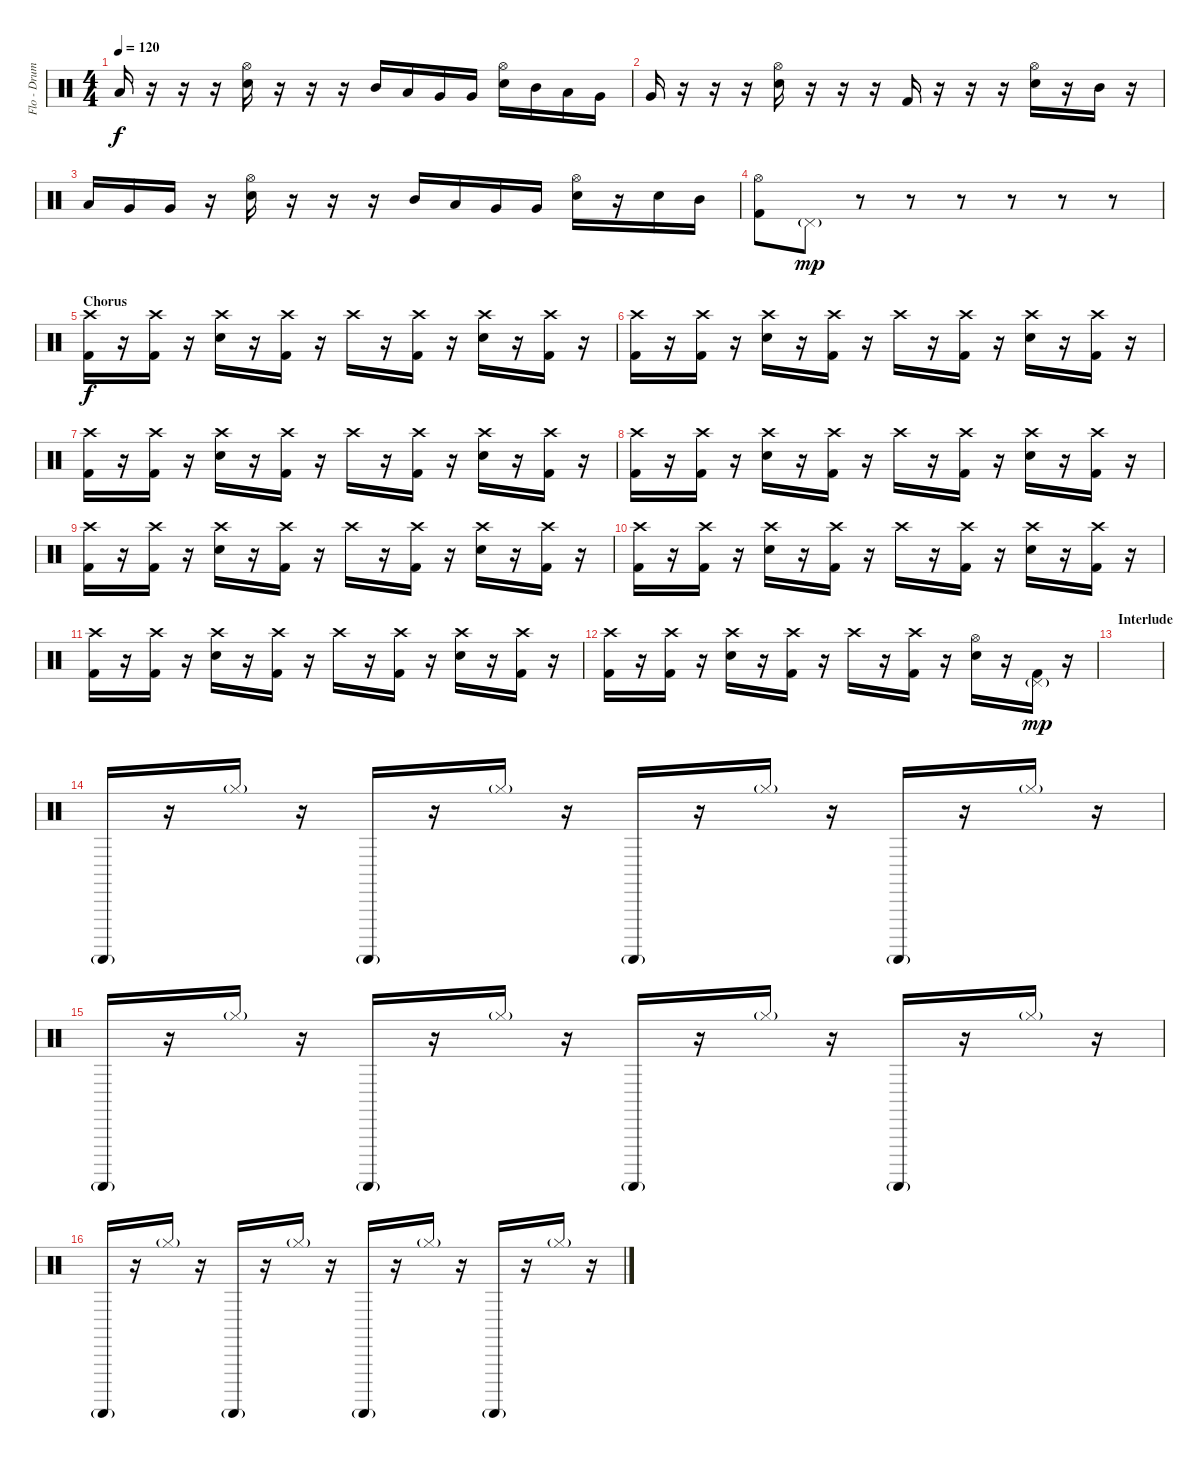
\track ("Flo - Drums" "Flo - Drum") {instrument percussion}
\staff {score}
\articulation defaults
\ts (4 4)
\tempo 120
\clef neutral
\ks c "Low Tom (hit)".16{dy f}
r.16 r.16 r.16 ("Hi-Hat (open)" "Electric Snare (hit)").16 r.16 r.16 r.16 "Mid Tom (hit)".16 "Low Tom (hit)".16 "Very Low Tom (hit)".16 "Very Low Tom (hit)".16 ("Hi-Hat (open)" "Electric Snare (hit)").16 "Mid Tom (hit)".16 "Low Tom (hit)".16 "Very Low Tom (hit)".16 |
"Very Low Tom (hit)".16 r.16 r.16 r.16 ("Hi-Hat (open)" "Electric Snare (hit)").16 r.16 r.16 r.16 "Kick (hit) 2".16 r.16 r.16 r.16 ("Hi-Hat (open)" "Electric Snare (hit)").16 r.16 "Mid Tom (hit)".16 r.16 |
"Low Tom (hit)".16 "Very Low Tom (hit)".16 "Very Low Tom (hit)".16 r.16 ("Hi-Hat (open)" "Electric Snare (hit)").16 r.16 r.16 r.16 "Mid Tom (hit)".16 "Low Tom (hit)".16 "Very Low Tom (hit)".16 "Very Low Tom (hit)".16 ("Hi-Hat (open)" "Electric Snare (hit)").16 r.16 "Electric Snare (hit)".16 "Mid Tom (hit)".16 |
("Hi-Hat (open)" "Kick (hit) 2").8 "Pedal Hi-Hat (hit)"{g}.8{dy mp} r.8 r.8 r.8 r.8 r.8 r.8 |
\section ("" "Chorus")
("Crash high (hit)" "Kick (hit) 2").16{dy f} r.16 ("Crash high (hit)" "Kick (hit) 2").16 r.16 ("Crash high (hit)" "Electric Snare (hit)").16 r.16 ("Crash high (hit)" "Kick (hit) 2").16 r.16 "Crash high (hit)".16 r.16 ("Crash high (hit)" "Kick (hit) 2").16 r.16 ("Crash high (hit)" "Electric Snare (hit)").16 r.16 ("Crash high (hit)" "Kick (hit) 2").16 r.16 |
("Crash high (hit)" "Kick (hit) 2").16 r.16 ("Crash high (hit)" "Kick (hit) 2").16 r.16 ("Crash high (hit)" "Electric Snare (hit)").16 r.16 ("Crash high (hit)" "Kick (hit) 2").16 r.16 "Crash high (hit)".16 r.16 ("Crash high (hit)" "Kick (hit) 2").16 r.16 ("Crash high (hit)" "Electric Snare (hit)").16 r.16 ("Crash high (hit)" "Kick (hit) 2").16 r.16 |
("Crash high (hit)" "Kick (hit) 2").16 r.16 ("Crash high (hit)" "Kick (hit) 2").16 r.16 ("Crash high (hit)" "Electric Snare (hit)").16 r.16 ("Crash high (hit)" "Kick (hit) 2").16 r.16 "Crash high (hit)".16 r.16 ("Crash high (hit)" "Kick (hit) 2").16 r.16 ("Crash high (hit)" "Electric Snare (hit)").16 r.16 ("Crash high (hit)" "Kick (hit) 2").16 r.16 |
("Crash high (hit)" "Kick (hit) 2").16 r.16 ("Crash high (hit)" "Kick (hit) 2").16 r.16 ("Crash high (hit)" "Electric Snare (hit)").16 r.16 ("Crash high (hit)" "Kick (hit) 2").16 r.16 "Crash high (hit)".16 r.16 ("Crash high (hit)" "Kick (hit) 2").16 r.16 ("Crash high (hit)" "Electric Snare (hit)").16 r.16 ("Crash high (hit)" "Kick (hit) 2").16 r.16 |
("Crash high (hit)" "Kick (hit) 2").16 r.16 ("Crash high (hit)" "Kick (hit) 2").16 r.16 ("Crash high (hit)" "Electric Snare (hit)").16 r.16 ("Crash high (hit)" "Kick (hit) 2").16 r.16 "Crash high (hit)".16 r.16 ("Crash high (hit)" "Kick (hit) 2").16 r.16 ("Crash high (hit)" "Electric Snare (hit)").16 r.16 ("Crash high (hit)" "Kick (hit) 2").16 r.16 |
("Crash high (hit)" "Kick (hit) 2").16 r.16 ("Crash high (hit)" "Kick (hit) 2").16 r.16 ("Crash high (hit)" "Electric Snare (hit)").16 r.16 ("Crash high (hit)" "Kick (hit) 2").16 r.16 "Crash high (hit)".16 r.16 ("Crash high (hit)" "Kick (hit) 2").16 r.16 ("Crash high (hit)" "Electric Snare (hit)").16 r.16 ("Crash high (hit)" "Kick (hit) 2").16 r.16 |
("Crash high (hit)" "Kick (hit) 2").16 r.16 ("Crash high (hit)" "Kick (hit) 2").16 r.16 ("Crash high (hit)" "Electric Snare (hit)").16 r.16 ("Crash high (hit)" "Kick (hit) 2").16 r.16 "Crash high (hit)".16 r.16 ("Crash high (hit)" "Kick (hit) 2").16 r.16 ("Crash high (hit)" "Electric Snare (hit)").16 r.16 ("Crash high (hit)" "Kick (hit) 2").16 r.16 |
("Crash high (hit)" "Kick (hit) 2").16 r.16 ("Crash high (hit)" "Kick (hit) 2").16 r.16 ("Crash high (hit)" "Electric Snare (hit)").16 r.16 ("Crash high (hit)" "Kick (hit) 2").16 r.16 "Crash high (hit)".16 r.16 ("Crash high (hit)" "Kick (hit) 2").16 r.16 ("Hi-Hat (open)" "Electric Snare (hit)").16 r.16 ("Pedal Hi-Hat (hit)"{g} "Kick (hit) 2").16{dy mp} r.16 |
\section ("" "Interlude")
|
"Guiro (scrap-return)"{g}.16 r.16 "Hi-Hat (closed)"{g}.16 r.16 "Guiro (scrap-return)"{g}.16 r.16 "Hi-Hat (closed)"{g}.16 r.16 "Guiro (scrap-return)"{g}.16 r.16 "Hi-Hat (closed)"{g}.16 r.16 "Guiro (scrap-return)"{g}.16 r.16 "Hi-Hat (closed)"{g}.16 r.16 |
"Guiro (scrap-return)"{g}.16 r.16 "Hi-Hat (closed)"{g}.16 r.16 "Guiro (scrap-return)"{g}.16 r.16 "Hi-Hat (closed)"{g}.16 r.16 "Guiro (scrap-return)"{g}.16 r.16 "Hi-Hat (closed)"{g}.16 r.16 "Guiro (scrap-return)"{g}.16 r.16 "Hi-Hat (closed)"{g}.16 r.16 |
"Guiro (scrap-return)"{g}.16 r.16 "Hi-Hat (closed)"{g}.16 r.16 "Guiro (scrap-return)"{g}.16 r.16 "Hi-Hat (closed)"{g}.16 r.16 "Guiro (scrap-return)"{g}.16 r.16 "Hi-Hat (closed)"{g}.16 r.16 "Guiro (scrap-return)"{g}.16 r.16 "Hi-Hat (closed)"{g}.16 r.16
